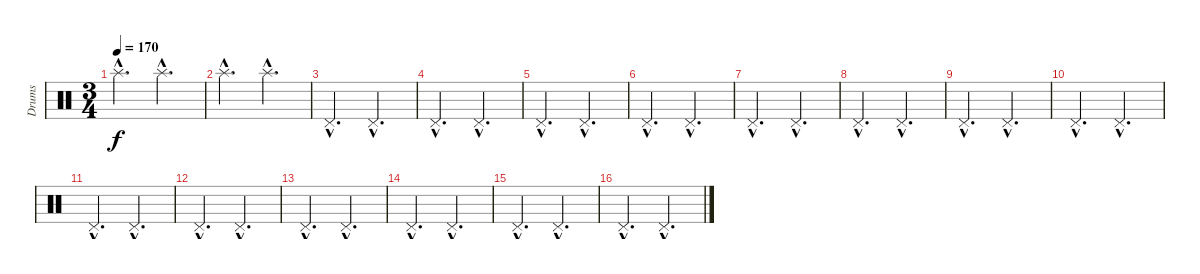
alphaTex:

\track ("Drums" "Drums") {instrument percussion}
\staff {score}
\articulation defaults
\ts (3 4)
\tempo 170
\clef neutral
\ks c "Splash (hit)"{hac}.4{d dy f} "Splash (hit)"{hac}.4{d}
|
"Splash (hit)"{hac}.4{d} "Splash (hit)"{hac}.4{d} |
"Pedal Hi-Hat (hit)"{hac}.4{d} "Pedal Hi-Hat (hit)"{hac}.4{d} |
"Pedal Hi-Hat (hit)"{hac}.4{d} "Pedal Hi-Hat (hit)"{hac}.4{d} |
"Pedal Hi-Hat (hit)"{hac}.4{d} "Pedal Hi-Hat (hit)"{hac}.4{d} |
"Pedal Hi-Hat (hit)"{hac}.4{d} "Pedal Hi-Hat (hit)"{hac}.4{d} |
"Pedal Hi-Hat (hit)"{hac}.4{d} "Pedal Hi-Hat (hit)"{hac}.4{d} |
"Pedal Hi-Hat (hit)"{hac}.4{d} "Pedal Hi-Hat (hit)"{hac}.4{d} |
"Pedal Hi-Hat (hit)"{hac}.4{d} "Pedal Hi-Hat (hit)"{hac}.4{d} |
"Pedal Hi-Hat (hit)"{hac}.4{d} "Pedal Hi-Hat (hit)"{hac}.4{d} |
"Pedal Hi-Hat (hit)"{hac}.4{d} "Pedal Hi-Hat (hit)"{hac}.4{d} |
"Pedal Hi-Hat (hit)"{hac}.4{d} "Pedal Hi-Hat (hit)"{hac}.4{d} |
"Pedal Hi-Hat (hit)"{hac}.4{d} "Pedal Hi-Hat (hit)"{hac}.4{d} |
"Pedal Hi-Hat (hit)"{hac}.4{d} "Pedal Hi-Hat (hit)"{hac}.4{d} |
"Pedal Hi-Hat (hit)"{hac}.4{d} "Pedal Hi-Hat (hit)"{hac}.4{d} |
"Pedal Hi-Hat (hit)"{hac}.4{d} "Pedal Hi-Hat (hit)"{hac}.4{d}
